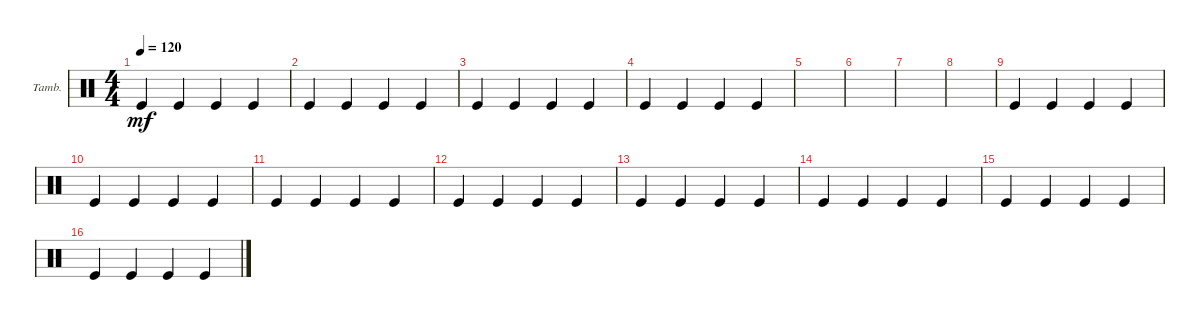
\defaultSystemsLayout 4
\bracketExtendMode groupsimilarinstruments
\firstSystemTrackNameOrientation horizontal
\otherSystemsTrackNameOrientation horizontal
\track ("Tambourine" "Tamb.") {instrument percussion}
\staff {score}
\articulation defaults
\ts (4 4)
\tempo 120
\clef neutral
\ks c "Kick (hit)".4{dy mf} "Kick (hit)".4 "Kick (hit)".4 "Kick (hit)".4
|
"Kick (hit)".4 "Kick (hit)".4 "Kick (hit)".4 "Kick (hit)".4 |
"Kick (hit)".4 "Kick (hit)".4 "Kick (hit)".4 "Kick (hit)".4 |
"Kick (hit)".4 "Kick (hit)".4 "Kick (hit)".4 "Kick (hit)".4 |
|
|
|
|
"Kick (hit)".4 "Kick (hit)".4 "Kick (hit)".4 "Kick (hit)".4 |
"Kick (hit)".4 "Kick (hit)".4 "Kick (hit)".4 "Kick (hit)".4 |
"Kick (hit)".4 "Kick (hit)".4 "Kick (hit)".4 "Kick (hit)".4 |
"Kick (hit)".4 "Kick (hit)".4 "Kick (hit)".4 "Kick (hit)".4 |
"Kick (hit)".4 "Kick (hit)".4 "Kick (hit)".4 "Kick (hit)".4 |
"Kick (hit)".4 "Kick (hit)".4 "Kick (hit)".4 "Kick (hit)".4 |
"Kick (hit)".4 "Kick (hit)".4 "Kick (hit)".4 "Kick (hit)".4 |
"Kick (hit)".4 "Kick (hit)".4 "Kick (hit)".4 "Kick (hit)".4
